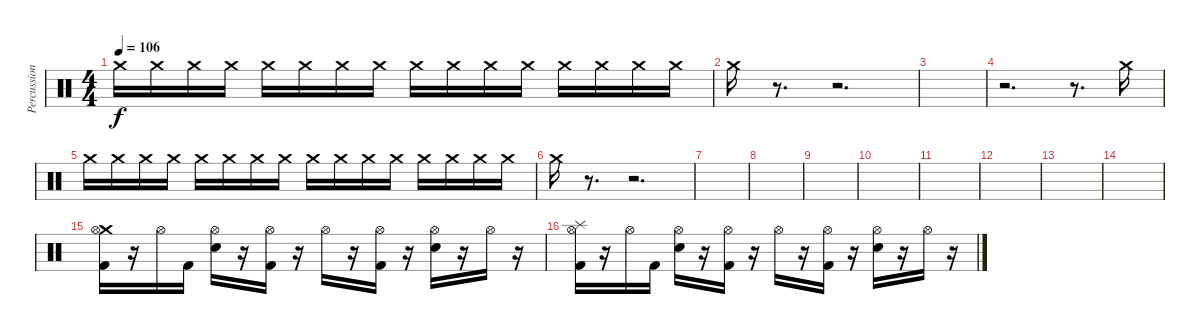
\track ("Percussion" "Percussion") {instrument percussion}
\staff {score}
\articulation defaults
\ts (4 4)
\tempo 106
\clef neutral
\ks c "Crash medium (hit)".16{dy f} "Crash medium (hit)".16 "Crash medium (hit)".16 "Crash medium (hit)".16 "Crash medium (hit)".16 "Crash medium (hit)".16 "Crash medium (hit)".16 "Crash medium (hit)".16 "Crash medium (hit)".16 "Crash medium (hit)".16 "Crash medium (hit)".16 "Crash medium (hit)".16 "Crash medium (hit)".16 "Crash medium (hit)".16 "Crash medium (hit)".16 "Crash medium (hit)".16
|
"Crash medium (hit)".16 r.8{d} r.2{d} |
|
r.2{d} r.8{d} "Crash medium (hit)".16 |
"Crash medium (hit)".16 "Crash medium (hit)".16 "Crash medium (hit)".16 "Crash medium (hit)".16 "Crash medium (hit)".16 "Crash medium (hit)".16 "Crash medium (hit)".16 "Crash medium (hit)".16 "Crash medium (hit)".16 "Crash medium (hit)".16 "Crash medium (hit)".16 "Crash medium (hit)".16 "Crash medium (hit)".16 "Crash medium (hit)".16 "Crash medium (hit)".16 "Crash medium (hit)".16 |
"Crash medium (hit)".16 r.8{d} r.2{d} |
|
|
|
|
|
|
|
|
("Crash medium (hit)" "Hi-Hat (open)" "Kick (hit) 2").16 r.16 "Hi-Hat (open)".16 "Kick (hit) 2".16 ("Hi-Hat (open)" "Electric Snare (hit)").16 r.16 ("Hi-Hat (open)" "Kick (hit) 2").16 r.16 "Hi-Hat (open)".16 r.16 ("Hi-Hat (open)" "Kick (hit) 2").16 r.16 ("Hi-Hat (open)" "Electric Snare (hit)").16 r.16 "Hi-Hat (open)".16 r.16 |
("Splash (hit)" "Hi-Hat (open)" "Kick (hit) 2").16 r.16 "Hi-Hat (open)".16 "Kick (hit) 2".16 ("Hi-Hat (open)" "Electric Snare (hit)").16 r.16 ("Hi-Hat (open)" "Kick (hit) 2").16 r.16 "Hi-Hat (open)".16 r.16 ("Hi-Hat (open)" "Kick (hit) 2").16 r.16 ("Hi-Hat (open)" "Electric Snare (hit)").16 r.16 "Hi-Hat (open)".16 r.16
